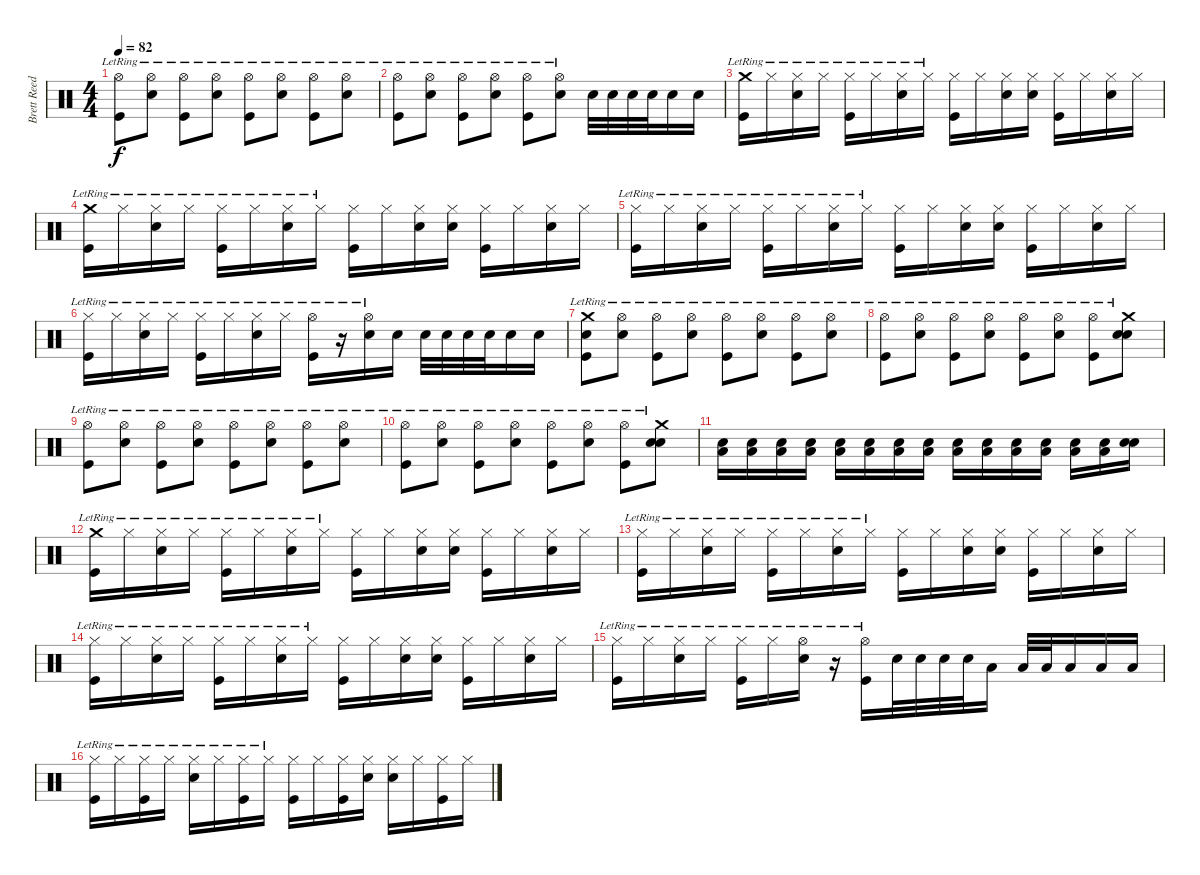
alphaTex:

\track ("Brett Reed" "Brett Reed") {instrument percussion}
\staff {score}
\articulation defaults
\ts (4 4)
\tempo 82
\clef neutral
\ks c
("Hi-Hat (open)"{lr} "Kick (hit)").8{dy f} ("Hi-Hat (open)"{lr} "Snare (hit) 2").8 ("Hi-Hat (open)"{lr} "Kick (hit)").8 ("Hi-Hat (open)"{lr} "Snare (hit) 2").8 ("Hi-Hat (open)"{lr} "Kick (hit)").8 ("Hi-Hat (open)"{lr} "Snare (hit) 2").8 ("Hi-Hat (open)"{lr} "Kick (hit)").8 ("Hi-Hat (open)"{lr} "Snare (hit) 2").8 |
("Hi-Hat (open)"{lr} "Kick (hit)").8 ("Hi-Hat (open)"{lr} "Snare (hit) 2").8 ("Hi-Hat (open)"{lr} "Kick (hit)").8 ("Hi-Hat (open)"{lr} "Snare (hit) 2").8 ("Hi-Hat (open)"{lr} "Kick (hit)").8 ("Hi-Hat (open)"{lr} "Snare (hit) 2").8 "Snare (hit) 2".32 "Snare (hit) 2".32 "Snare (hit) 2".32 "Snare (hit) 2".32 "Snare (hit) 2".16 "Snare (hit) 2".16 |
("Crash medium (hit)"{lr} "Kick (hit)").16 "Hi-Hat (closed)"{lr}.16 ("Hi-Hat (closed)"{lr} "Snare (hit) 2").16 "Hi-Hat (closed)"{lr}.16 ("Hi-Hat (closed)"{lr} "Kick (hit)").16 "Hi-Hat (closed)"{lr}.16 ("Hi-Hat (closed)"{lr} "Snare (hit) 2").16 "Hi-Hat (closed)"{lr}.16 ("Hi-Hat (closed)" "Kick (hit)").16 "Hi-Hat (closed)".16 ("Hi-Hat (closed)" "Snare (hit) 2").16 ("Hi-Hat (closed)" "Snare (hit)").16 ("Hi-Hat (closed)" "Kick (hit)").16 "Hi-Hat (closed)".16 ("Hi-Hat (closed)" "Snare (hit) 2").16 "Hi-Hat (closed)".16 |
("Crash medium (hit)"{lr} "Kick (hit)").16 "Hi-Hat (closed)"{lr}.16 ("Hi-Hat (closed)"{lr} "Snare (hit) 2").16 "Hi-Hat (closed)"{lr}.16 ("Hi-Hat (closed)"{lr} "Kick (hit)").16 "Hi-Hat (closed)"{lr}.16 ("Hi-Hat (closed)"{lr} "Snare (hit) 2").16 "Hi-Hat (closed)"{lr}.16 ("Hi-Hat (closed)" "Kick (hit)").16 "Hi-Hat (closed)".16 ("Hi-Hat (closed)" "Snare (hit) 2").16 ("Hi-Hat (closed)" "Snare (hit)").16 ("Hi-Hat (closed)" "Kick (hit)").16 "Hi-Hat (closed)".16 ("Hi-Hat (closed)" "Snare (hit) 2").16 "Hi-Hat (closed)".16 |
("Hi-Hat (closed)"{lr} "Kick (hit)").16 "Hi-Hat (closed)"{lr}.16 ("Hi-Hat (closed)"{lr} "Snare (hit) 2").16 "Hi-Hat (closed)"{lr}.16 ("Hi-Hat (closed)"{lr} "Kick (hit)").16 "Hi-Hat (closed)"{lr}.16 ("Hi-Hat (closed)"{lr} "Snare (hit) 2").16 "Hi-Hat (closed)"{lr}.16 ("Hi-Hat (closed)" "Kick (hit)").16 "Hi-Hat (closed)".16 ("Hi-Hat (closed)" "Snare (hit) 2").16 ("Hi-Hat (closed)" "Snare (hit)").16 ("Hi-Hat (closed)" "Kick (hit)").16 "Hi-Hat (closed)".16 ("Hi-Hat (closed)" "Snare (hit) 2").16 "Hi-Hat (closed)".16 |
("Hi-Hat (closed)"{lr} "Kick (hit)").16 "Hi-Hat (closed)"{lr}.16 ("Hi-Hat (closed)"{lr} "Snare (hit) 2").16 "Hi-Hat (closed)"{lr}.16 ("Hi-Hat (closed)"{lr} "Kick (hit)").16 "Hi-Hat (closed)"{lr}.16 ("Hi-Hat (closed)"{lr} "Snare (hit) 2").16 "Hi-Hat (closed)"{lr}.16 ("Hi-Hat (open)"{lr} "Kick (hit)").16 r.16 ("Hi-Hat (open)"{lr} "Snare (hit) 2").16 "Snare (hit)".16 "Snare (hit) 2".32 "Snare (hit) 2".32 "Snare (hit) 2".32 "Snare (hit) 2".32 "Snare (hit) 2".16 "Snare (hit) 2".16 |
("Crash medium (hit)"{lr} "Kick (hit)" "Snare (hit)").8 ("Hi-Hat (open)"{lr} "Snare (hit) 2").8 ("Hi-Hat (open)"{lr} "Kick (hit)").8 ("Hi-Hat (open)"{lr} "Snare (hit) 2").8 ("Hi-Hat (open)"{lr} "Kick (hit)").8 ("Hi-Hat (open)"{lr} "Snare (hit) 2").8 ("Hi-Hat (open)"{lr} "Kick (hit)").8 ("Hi-Hat (open)"{lr} "Snare (hit) 2").8 |
("Hi-Hat (open)"{lr} "Kick (hit)").8 ("Hi-Hat (open)"{lr} "Snare (hit) 2").8 ("Hi-Hat (open)"{lr} "Kick (hit)").8 ("Hi-Hat (open)"{lr} "Snare (hit) 2").8 ("Hi-Hat (open)"{lr} "Kick (hit)").8 ("Hi-Hat (open)"{lr} "Snare (hit) 2").8 ("Hi-Hat (open)"{lr} "Kick (hit)").8 ("Crash medium (hit)"{lr} "Snare (hit)" "Snare (hit) 2").8 |
("Hi-Hat (open)"{lr} "Kick (hit)").8 ("Hi-Hat (open)"{lr} "Snare (hit) 2").8 ("Hi-Hat (open)"{lr} "Kick (hit)").8 ("Hi-Hat (open)"{lr} "Snare (hit) 2").8 ("Hi-Hat (open)"{lr} "Kick (hit)").8 ("Hi-Hat (open)"{lr} "Snare (hit) 2").8 ("Hi-Hat (open)"{lr} "Kick (hit)").8 ("Hi-Hat (open)"{lr} "Snare (hit) 2").8 |
("Hi-Hat (open)"{lr} "Kick (hit)").8 ("Hi-Hat (open)"{lr} "Snare (hit) 2").8 ("Hi-Hat (open)"{lr} "Kick (hit)").8 ("Hi-Hat (open)"{lr} "Snare (hit) 2").8 ("Hi-Hat (open)"{lr} "Kick (hit)").8 ("Hi-Hat (open)"{lr} "Snare (hit) 2").8 ("Hi-Hat (open)"{lr} "Kick (hit)").8 ("Crash medium (hit)"{lr} "Snare (hit)" "Snare (hit) 2").8 |
("Low Floor Tom (hit)" "Snare (hit) 2").16 ("Low Floor Tom (hit)" "Snare (hit) 2").16 ("Low Floor Tom (hit)" "Snare (hit) 2").16 ("Low Floor Tom (hit)" "Snare (hit) 2").16 ("Low Floor Tom (hit)" "Snare (hit) 2").16 ("Low Floor Tom (hit)" "Snare (hit) 2").16 ("Low Floor Tom (hit)" "Snare (hit) 2").16 ("Low Floor Tom (hit)" "Snare (hit) 2").16 ("Low Floor Tom (hit)" "Snare (hit) 2").16 ("Low Floor Tom (hit)" "Snare (hit) 2").16 ("Low Floor Tom (hit)" "Snare (hit) 2").16 ("Low Floor Tom (hit)" "Snare (hit) 2").16 ("Low Floor Tom (hit)" "Snare (hit) 2").16 ("Low Floor Tom (hit)" "Snare (hit) 2").16 ("Snare (hit) 2" "Snare (hit) 2").16 |
("Crash medium (hit)"{lr} "Kick (hit)").16 "Hi-Hat (closed)"{lr}.16 ("Hi-Hat (closed)"{lr} "Snare (hit) 2").16 "Hi-Hat (closed)"{lr}.16 ("Hi-Hat (closed)"{lr} "Kick (hit)").16 "Hi-Hat (closed)"{lr}.16 ("Hi-Hat (closed)"{lr} "Snare (hit) 2").16 "Hi-Hat (closed)"{lr}.16 ("Hi-Hat (closed)" "Kick (hit)").16 "Hi-Hat (closed)".16 ("Hi-Hat (closed)" "Snare (hit) 2").16 ("Hi-Hat (closed)" "Snare (hit)").16 ("Hi-Hat (closed)" "Kick (hit)").16 "Hi-Hat (closed)".16 ("Hi-Hat (closed)" "Snare (hit) 2").16 "Hi-Hat (closed)".16 |
("Hi-Hat (closed)"{lr} "Kick (hit)").16 "Hi-Hat (closed)"{lr}.16 ("Hi-Hat (closed)"{lr} "Snare (hit) 2").16 "Hi-Hat (closed)"{lr}.16 ("Hi-Hat (closed)"{lr} "Kick (hit)").16 "Hi-Hat (closed)"{lr}.16 ("Hi-Hat (closed)"{lr} "Snare (hit) 2").16 "Hi-Hat (closed)"{lr}.16 ("Hi-Hat (closed)" "Kick (hit)").16 "Hi-Hat (closed)".16 ("Hi-Hat (closed)" "Snare (hit) 2").16 ("Hi-Hat (closed)" "Snare (hit)").16 ("Hi-Hat (closed)" "Kick (hit)").16 "Hi-Hat (closed)".16 ("Hi-Hat (closed)" "Snare (hit) 2").16 "Hi-Hat (closed)".16 |
("Hi-Hat (closed)"{lr} "Kick (hit)").16 "Hi-Hat (closed)"{lr}.16 ("Hi-Hat (closed)"{lr} "Snare (hit) 2").16 "Hi-Hat (closed)"{lr}.16 ("Hi-Hat (closed)"{lr} "Kick (hit)").16 "Hi-Hat (closed)"{lr}.16 ("Hi-Hat (closed)"{lr} "Snare (hit) 2").16 "Hi-Hat (closed)"{lr}.16 ("Hi-Hat (closed)" "Kick (hit)").16 "Hi-Hat (closed)".16 ("Hi-Hat (closed)" "Snare (hit) 2").16 ("Hi-Hat (closed)" "Snare (hit)").16 ("Hi-Hat (closed)" "Kick (hit)").16 "Hi-Hat (closed)".16 ("Hi-Hat (closed)" "Snare (hit) 2").16 "Hi-Hat (closed)".16 |
("Hi-Hat (closed)"{lr} "Kick (hit)").16 "Hi-Hat (closed)"{lr}.16 ("Hi-Hat (closed)"{lr} "Snare (hit) 2").16 "Hi-Hat (closed)"{lr}.16 ("Hi-Hat (closed)"{lr} "Kick (hit)").16 "Hi-Hat (closed)"{lr}.16 ("Hi-Hat (open)"{lr} "Snare (hit) 2").16 r.16 ("Hi-Hat (open)"{lr} "Kick (hit)").16 "Snare (hit) 2".32 "Snare (hit) 2".32 "Snare (hit) 2".32 "Snare (hit) 2".32 "Low Tom (hit)".16 "Low Tom (hit)".32 "Low Tom (hit)".32 "Low Tom (hit)".16 "Low Floor Tom (hit)".16 "Low Floor Tom (hit)".16 |
("Hi-Hat (closed)"{lr} "Kick (hit)").16 "Hi-Hat (closed)"{lr}.16 ("Hi-Hat (closed)"{lr} "Kick (hit)").16 "Hi-Hat (closed)"{lr}.16 ("Hi-Hat (closed)"{lr} "Snare (hit) 2").16 "Hi-Hat (closed)"{lr}.16 ("Hi-Hat (closed)"{lr} "Kick (hit)").16 "Hi-Hat (closed)"{lr}.16 ("Hi-Hat (closed)" "Kick (hit)").16 "Hi-Hat (closed)".16 ("Hi-Hat (closed)" "Kick (hit)").16 ("Hi-Hat (closed)" "Snare (hit)").16 ("Hi-Hat (closed)" "Snare (hit) 2").16 "Hi-Hat (closed)".16 ("Hi-Hat (closed)" "Kick (hit)").16 "Hi-Hat (closed)".16
